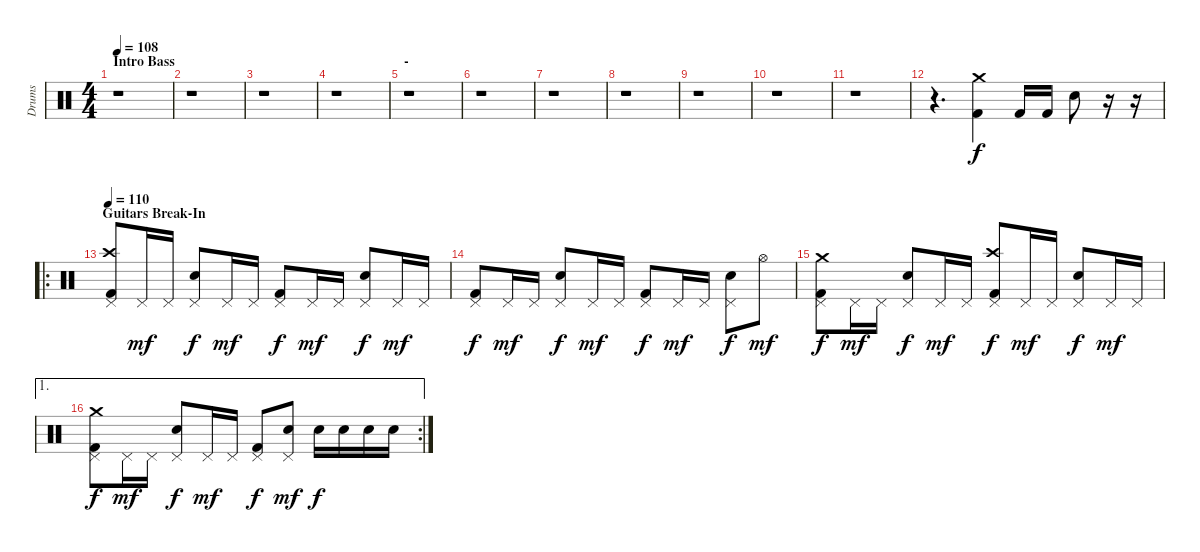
\track ("Drums" "Drums") {instrument percussion}
\staff {score}
\articulation defaults
\ts (4 4)
\section ("" "Intro Bass")
\tempo 108
\clef neutral
\ks c
r.1{dy f} |
r.1 |
r.1 |
r.1 |
\section ("" "-")
r.1 |
r.1 |
r.1 |
r.1 |
r.1 |
r.1 |
r.1 |
r.4{d} ("Crash medium (hit)" "Kick (hit) 2").4 "Kick (hit) 2".16 "Kick (hit) 2".16 "Snare (hit) 2".8 r.16 r.16 |
\ro
\section ("" "Guitars Break-In")
\tempo 110
("Crash high (hit)" "Pedal Hi-Hat (hit)" "Kick (hit) 2").8 "Pedal Hi-Hat (hit)".16{dy mf} "Pedal Hi-Hat (hit)".16 ("Pedal Hi-Hat (hit)" "Snare (hit) 2").8{dy f} "Pedal Hi-Hat (hit)".16{dy mf} "Pedal Hi-Hat (hit)".16 ("Pedal Hi-Hat (hit)" "Kick (hit) 2").8{dy f} "Pedal Hi-Hat (hit)".16{dy mf} "Pedal Hi-Hat (hit)".16 ("Pedal Hi-Hat (hit)" "Snare (hit) 2").8{dy f} "Pedal Hi-Hat (hit)".16{dy mf} "Pedal Hi-Hat (hit)".16 |
("Pedal Hi-Hat (hit)" "Kick (hit) 2").8{dy f} "Pedal Hi-Hat (hit)".16{dy mf} "Pedal Hi-Hat (hit)".16 ("Pedal Hi-Hat (hit)" "Snare (hit) 2").8{dy f} "Pedal Hi-Hat (hit)".16{dy mf} "Pedal Hi-Hat (hit)".16 ("Pedal Hi-Hat (hit)" "Kick (hit) 2").8{dy f} "Pedal Hi-Hat (hit)".16{dy mf} "Pedal Hi-Hat (hit)".16 ("Pedal Hi-Hat (hit)" "Snare (hit) 2").8{dy f} "Hi-Hat (open)".8{dy mf} |
("Crash medium (hit)" "Pedal Hi-Hat (hit)" "Kick (hit) 2").8{dy f} "Pedal Hi-Hat (hit)".16{dy mf} "Pedal Hi-Hat (hit)".16 ("Pedal Hi-Hat (hit)" "Snare (hit) 2").8{dy f} "Pedal Hi-Hat (hit)".16{dy mf} "Pedal Hi-Hat (hit)".16 ("Crash high (hit)" "Pedal Hi-Hat (hit)" "Kick (hit) 2").8{dy f} "Pedal Hi-Hat (hit)".16{dy mf} "Pedal Hi-Hat (hit)".16 ("Pedal Hi-Hat (hit)" "Snare (hit) 2").8{dy f} "Pedal Hi-Hat (hit)".16{dy mf} "Pedal Hi-Hat (hit)".16 |
\ae 1
\rc 2
("Crash medium (hit)" "Pedal Hi-Hat (hit)" "Kick (hit) 2").8{dy f} "Pedal Hi-Hat (hit)".16{dy mf} "Pedal Hi-Hat (hit)".16 ("Pedal Hi-Hat (hit)" "Snare (hit) 2").8{dy f} "Pedal Hi-Hat (hit)".16{dy mf} "Pedal Hi-Hat (hit)".16 ("Pedal Hi-Hat (hit)" "Kick (hit) 2").8{dy f} ("Pedal Hi-Hat (hit)" "Snare (hit) 2").8{dy mf} "Snare (hit) 2".16{dy f} "Snare (hit) 2".16 "Snare (hit) 2".16 "Snare (hit) 2".16
